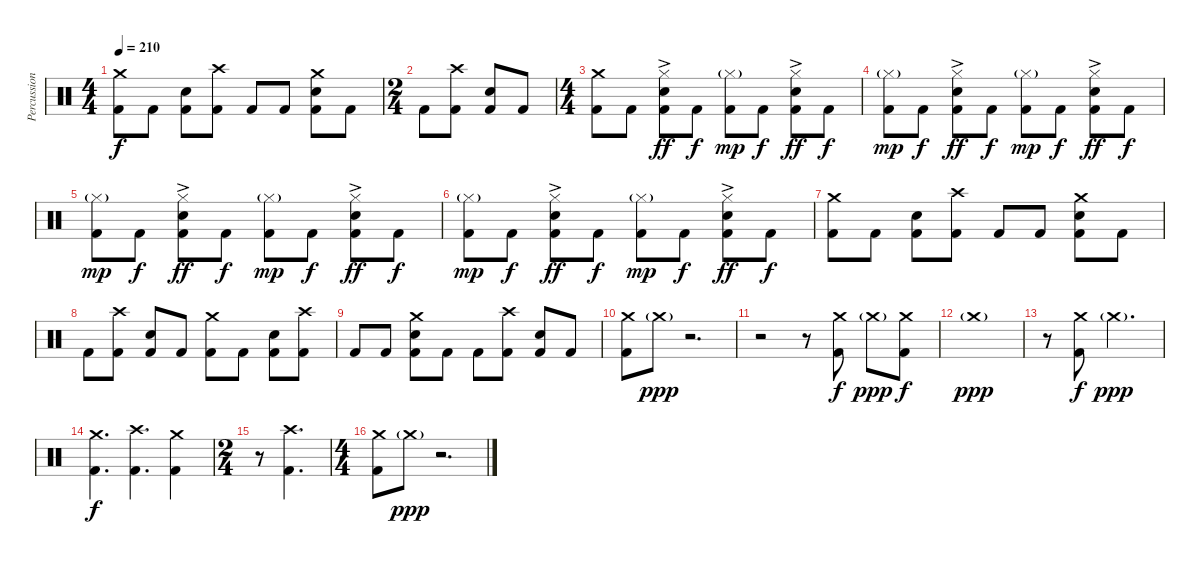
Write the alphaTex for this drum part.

\track ("Percussion" "Percussion") {instrument percussion}
\staff {score}
\articulation defaults
\ts (4 4)
\tempo 210
\clef neutral
\ks c
("Crash medium (hit)" "Kick (hit) 2").8{dy f} "Kick (hit) 2".8 ("Electric Snare (hit)" "Kick (hit) 2").8 ("Crash high (hit)" "Kick (hit) 2").8 "Kick (hit) 2".8 "Kick (hit) 2".8 ("Crash medium (hit)" "Electric Snare (hit)" "Kick (hit) 2").8 "Kick (hit) 2".8 |
\ts (2 4)
"Kick (hit) 2".8 ("Crash high (hit)" "Kick (hit) 2").8 ("Electric Snare (hit)" "Kick (hit) 2").8 "Kick (hit) 2".8 |
\ts (4 4)
("Crash medium (hit)" "Kick (hit) 2").8 "Kick (hit) 2".8 ("Hi-Hat (closed)"{ac} "Electric Snare (hit)" "Kick (hit) 2").8{dy ff} "Kick (hit) 2".8{dy f} ("Hi-Hat (closed)"{g} "Kick (hit) 2").8{dy mp} "Kick (hit) 2".8{dy f} ("Hi-Hat (closed)"{ac} "Electric Snare (hit)" "Kick (hit) 2").8{dy ff} "Kick (hit) 2".8{dy f} |
("Hi-Hat (closed)"{g} "Kick (hit) 2").8{dy mp} "Kick (hit) 2".8{dy f} ("Hi-Hat (closed)"{ac} "Electric Snare (hit)" "Kick (hit) 2").8{dy ff} "Kick (hit) 2".8{dy f} ("Hi-Hat (closed)"{g} "Kick (hit) 2").8{dy mp} "Kick (hit) 2".8{dy f} ("Hi-Hat (closed)"{ac} "Electric Snare (hit)" "Kick (hit) 2").8{dy ff} "Kick (hit) 2".8{dy f} |
("Hi-Hat (closed)"{g} "Kick (hit) 2").8{dy mp} "Kick (hit) 2".8{dy f} ("Hi-Hat (closed)"{ac} "Electric Snare (hit)" "Kick (hit) 2").8{dy ff} "Kick (hit) 2".8{dy f} ("Hi-Hat (closed)"{g} "Kick (hit) 2").8{dy mp} "Kick (hit) 2".8{dy f} ("Hi-Hat (closed)"{ac} "Electric Snare (hit)" "Kick (hit) 2").8{dy ff} "Kick (hit) 2".8{dy f} |
("Hi-Hat (closed)"{g} "Kick (hit) 2").8{dy mp} "Kick (hit) 2".8{dy f} ("Hi-Hat (closed)"{ac} "Electric Snare (hit)" "Kick (hit) 2").8{dy ff} "Kick (hit) 2".8{dy f} ("Hi-Hat (closed)"{g} "Kick (hit) 2").8{dy mp} "Kick (hit) 2".8{dy f} ("Hi-Hat (closed)"{ac} "Electric Snare (hit)" "Kick (hit) 2").8{dy ff} "Kick (hit) 2".8{dy f} |
("Crash medium (hit)" "Kick (hit) 2").8 "Kick (hit) 2".8 ("Electric Snare (hit)" "Kick (hit) 2").8 ("Crash high (hit)" "Kick (hit) 2").8 "Kick (hit) 2".8 "Kick (hit) 2".8 ("Crash medium (hit)" "Electric Snare (hit)" "Kick (hit) 2").8 "Kick (hit) 2".8 |
"Kick (hit) 2".8 ("Crash high (hit)" "Kick (hit) 2").8 ("Electric Snare (hit)" "Kick (hit) 2").8 "Kick (hit) 2".8 ("Crash medium (hit)" "Kick (hit) 2").8 "Kick (hit) 2".8 ("Electric Snare (hit)" "Kick (hit) 2").8 ("Crash high (hit)" "Kick (hit) 2").8 |
"Kick (hit) 2".8 "Kick (hit) 2".8 ("Crash medium (hit)" "Electric Snare (hit)" "Kick (hit) 2").8 "Kick (hit) 2".8 "Kick (hit) 2".8 ("Crash high (hit)" "Kick (hit) 2").8 ("Electric Snare (hit)" "Kick (hit) 2").8 "Kick (hit) 2".8 |
("Crash medium (hit)" "Kick (hit) 2").8 "Crash medium (hit)"{g}.8{dy ppp} r.2{d} |
r.2 r.8 ("Crash medium (hit)" "Kick (hit) 2").8{dy f} "Crash medium (hit)"{g}.8{dy ppp} ("Crash medium (hit)" "Kick (hit) 2").8{dy f} |
"Crash medium (hit)"{g}.1{dy ppp} |
r.8 ("Crash medium (hit)" "Kick (hit) 2").8{dy f} "Crash medium (hit)"{g}.2{d dy ppp} |
("Crash medium (hit)" "Kick (hit) 2").4{d dy f} ("Crash high (hit)" "Kick (hit) 2").4{d} ("Crash medium (hit)" "Kick (hit) 2").4 |
\ts (2 4)
r.8 ("Crash high (hit)" "Kick (hit) 2").4{d} |
\ts (4 4)
("Crash medium (hit)" "Kick (hit) 2").8 "Crash medium (hit)"{g}.8{dy ppp} r.2{d}
